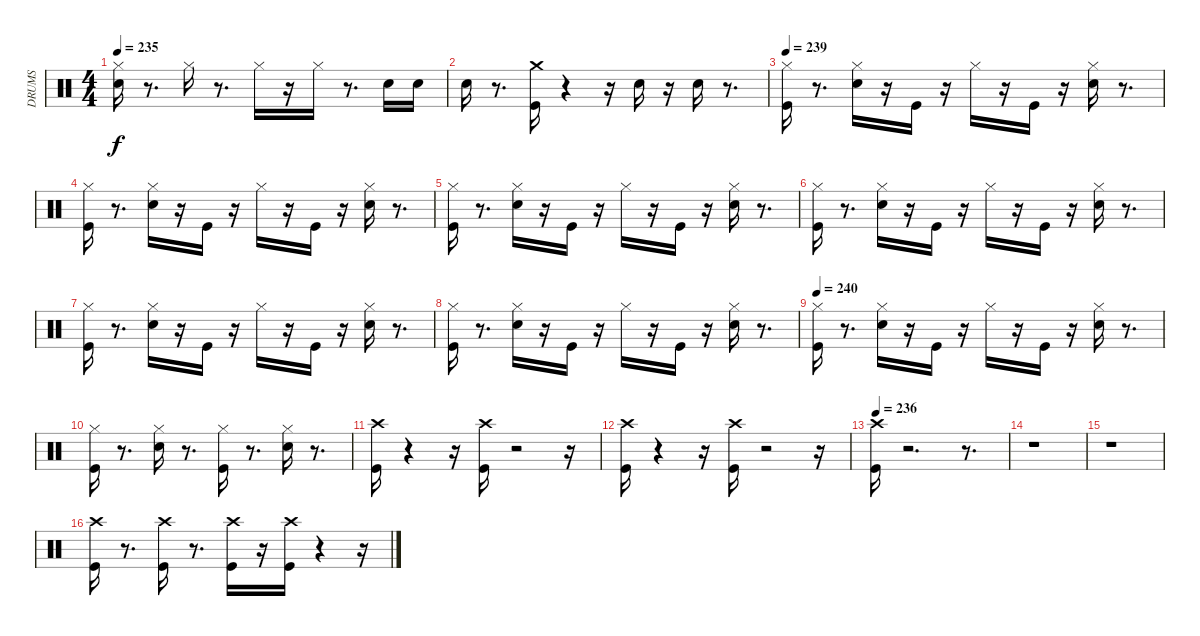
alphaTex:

\track ("DRUMS" "DRUMS") {instrument percussion}
\staff {score}
\articulation defaults
\ts (4 4)
\tempo 235
\clef neutral
\ks c
("Electric Snare (hit)" "Hi-Hat (closed)").16{dy f} r.8{d} "Hi-Hat (closed)".16 r.8{d} "Hi-Hat (closed)".16 r.16 "Hi-Hat (closed)".16 r.8{d} "Electric Snare (hit)".16 "Electric Snare (hit)".16 |
"Electric Snare (hit)".16 r.8{d} ("Crash medium (hit)" "Kick (hit)").16 r.4 r.16 "Electric Snare (hit)".16 r.16 "Electric Snare (hit)".16 r.8{d} |
\tempo 239
("Kick (hit)" "Hi-Hat (closed)").16 r.8{d} ("Hi-Hat (closed)" "Electric Snare (hit)").16 r.16 "Kick (hit)".16 r.16 "Hi-Hat (closed)".16 r.16 "Kick (hit)".16 r.16 ("Electric Snare (hit)" "Hi-Hat (closed)").16 r.8{d} |
("Kick (hit)" "Hi-Hat (closed)").16 r.8{d} ("Hi-Hat (closed)" "Electric Snare (hit)").16 r.16 "Kick (hit)".16 r.16 "Hi-Hat (closed)".16 r.16 "Kick (hit)".16 r.16 ("Electric Snare (hit)" "Hi-Hat (closed)").16 r.8{d} |
("Kick (hit)" "Hi-Hat (closed)").16 r.8{d} ("Hi-Hat (closed)" "Electric Snare (hit)").16 r.16 "Kick (hit)".16 r.16 "Hi-Hat (closed)".16 r.16 "Kick (hit)".16 r.16 ("Electric Snare (hit)" "Hi-Hat (closed)").16 r.8{d} |
("Kick (hit)" "Hi-Hat (closed)").16 r.8{d} ("Electric Snare (hit)" "Hi-Hat (closed)").16 r.16 "Kick (hit)".16 r.16 "Hi-Hat (closed)".16 r.16 "Kick (hit)".16 r.16 ("Electric Snare (hit)" "Hi-Hat (closed)").16 r.8{d} |
("Kick (hit)" "Hi-Hat (closed)").16 r.8{d} ("Hi-Hat (closed)" "Electric Snare (hit)").16 r.16 "Kick (hit)".16 r.16 "Hi-Hat (closed)".16 r.16 "Kick (hit)".16 r.16 ("Electric Snare (hit)" "Hi-Hat (closed)").16 r.8{d} |
("Kick (hit)" "Hi-Hat (closed)").16 r.8{d} ("Hi-Hat (closed)" "Electric Snare (hit)").16 r.16 "Kick (hit)".16 r.16 "Hi-Hat (closed)".16 r.16 "Kick (hit)".16 r.16 ("Electric Snare (hit)" "Hi-Hat (closed)").16 r.8{d} |
\tempo 240
("Kick (hit)" "Hi-Hat (closed)").16 r.8{d} ("Hi-Hat (closed)" "Electric Snare (hit)").16 r.16 "Kick (hit)".16 r.16 "Hi-Hat (closed)".16 r.16 "Kick (hit)".16 r.16 ("Electric Snare (hit)" "Hi-Hat (closed)").16 r.8{d} |
("Kick (hit)" "Hi-Hat (closed)").16 r.8{d} ("Electric Snare (hit)" "Hi-Hat (closed)").16 r.8{d} ("Hi-Hat (closed)" "Kick (hit)").16 r.8{d} ("Electric Snare (hit)" "Hi-Hat (closed)").16 r.8{d} |
("Crash high (hit)" "Kick (hit)").16 r.4 r.16 ("Crash high (hit)" "Kick (hit)").16 r.2 r.16 |
("Crash high (hit)" "Kick (hit)").16 r.4 r.16 ("Crash high (hit)" "Kick (hit)").16 r.2 r.16 |
\tempo 236
("Crash high (hit)" "Kick (hit)").16 r.2{d} r.8{d} |
r.1 |
r.1 |
("Crash high (hit)" "Kick (hit)").16 r.8{d} ("Kick (hit)" "Crash high (hit)").16 r.8{d} ("Crash high (hit)" "Kick (hit)").16 r.16 ("Kick (hit)" "Crash high (hit)").16 r.4 r.16
